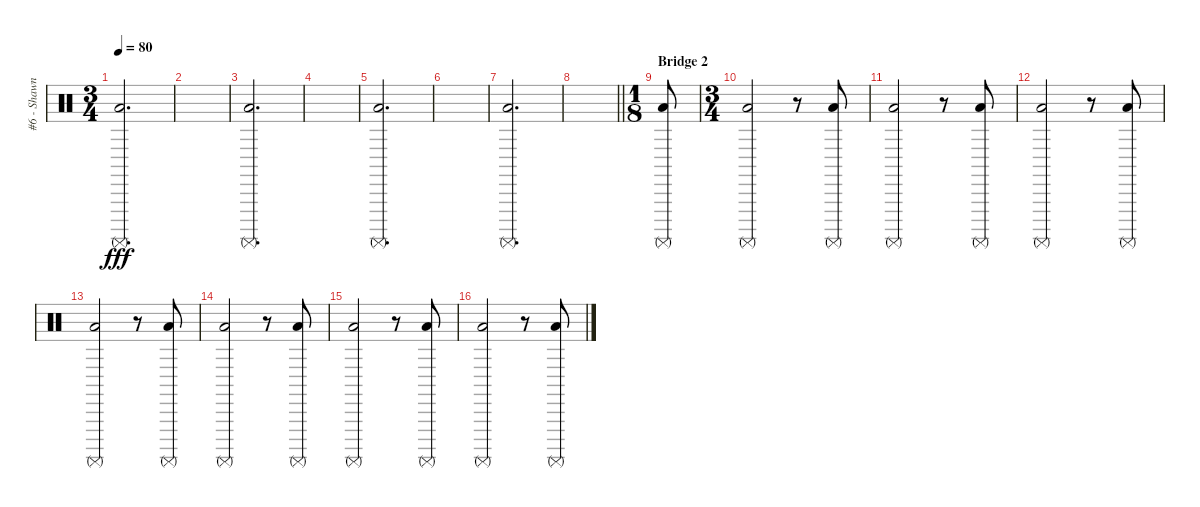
\track ("#6 - Shawn Crahan" "#6 - Shawn") {instrument percussion}
\staff {score}
\articulation defaults
\ts (3 4)
\tempo 80
\clef neutral
\ks c
("Low Floor Tom (hit)" "Surdo (mute)").2{d dy fff volume 16} |
|
("Low Floor Tom (hit)" "Surdo (mute)").2{d} |
|
("Low Floor Tom (hit)" "Surdo (mute)").2{d volume 16} |
|
("Low Floor Tom (hit)" "Surdo (mute)").2{d} |
\barLineRight lightlight
|
\ts (1 8)
\section ("" "Bridge 2")
("Low Floor Tom (hit)" "Surdo (mute)").8 |
\ts (3 4)
("Low Floor Tom (hit)" "Surdo (mute)").2 r.8 ("Low Floor Tom (hit)" "Surdo (mute)").8 |
("Low Floor Tom (hit)" "Surdo (mute)").2 r.8 ("Low Floor Tom (hit)" "Surdo (mute)").8 |
("Low Floor Tom (hit)" "Surdo (mute)").2 r.8 ("Low Floor Tom (hit)" "Surdo (mute)").8 |
("Low Floor Tom (hit)" "Surdo (mute)").2 r.8 ("Low Floor Tom (hit)" "Surdo (mute)").8 |
("Low Floor Tom (hit)" "Surdo (mute)").2 r.8 ("Low Floor Tom (hit)" "Surdo (mute)").8 |
("Low Floor Tom (hit)" "Surdo (mute)").2 r.8 ("Low Floor Tom (hit)" "Surdo (mute)").8 |
("Low Floor Tom (hit)" "Surdo (mute)").2 r.8 ("Low Floor Tom (hit)" "Surdo (mute)").8
